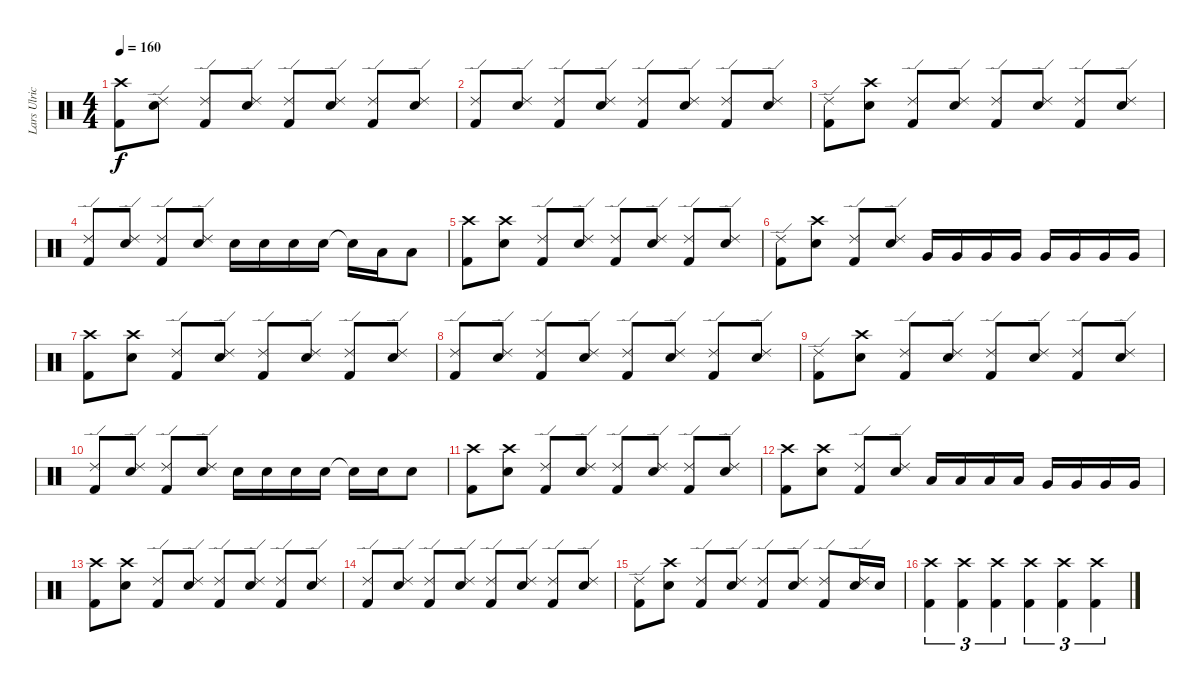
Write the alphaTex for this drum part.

\track ("Lars Ulrich" "Lars Ulric") {instrument percussion}
\staff {score}
\articulation defaults
\ts (4 4)
\tempo 160
\clef neutral
\ks c
("Crash high (hit)" "Kick (hit) 2").8{dy f balance 8} ("Ride (edge) 2" "Electric Snare (hit)").8 ("Ride (edge) 2" "Kick (hit) 2").8 ("Ride (edge) 2" "Electric Snare (hit)").8 ("Ride (edge) 2" "Kick (hit) 2").8 ("Ride (edge) 2" "Electric Snare (hit)").8 ("Ride (edge) 2" "Kick (hit) 2").8 ("Ride (edge) 2" "Electric Snare (hit)").8 |
("Ride (edge) 2" "Kick (hit) 2").8 ("Ride (edge) 2" "Electric Snare (hit)").8 ("Ride (edge) 2" "Kick (hit) 2").8 ("Ride (edge) 2" "Electric Snare (hit)").8 ("Ride (edge) 2" "Kick (hit) 2").8 ("Ride (edge) 2" "Electric Snare (hit)").8 ("Ride (edge) 2" "Kick (hit) 2").8 ("Ride (edge) 2" "Electric Snare (hit)").8 |
("Ride (edge) 2" "Kick (hit) 2").8 ("Crash high (hit)" "Electric Snare (hit)").8 ("Ride (edge) 2" "Kick (hit) 2").8 ("Ride (edge) 2" "Electric Snare (hit)").8 ("Ride (edge) 2" "Kick (hit) 2").8 ("Ride (edge) 2" "Electric Snare (hit)").8 ("Ride (edge) 2" "Kick (hit) 2").8 ("Ride (edge) 2" "Electric Snare (hit)").8 |
("Ride (edge) 2" "Kick (hit) 2").8 ("Ride (edge) 2" "Electric Snare (hit)").8 ("Ride (edge) 2" "Kick (hit) 2").8 ("Ride (edge) 2" "Electric Snare (hit)").8 "Electric Snare (hit)".16 "Electric Snare (hit)".16 "Electric Snare (hit)".16 "Electric Snare (hit)".16 "Snare (hit)"{t}.16 "Low Tom (hit)".16 "Low Tom (hit)".8 |
("Crash high (hit)" "Kick (hit) 2").8 ("Crash high (hit)" "Electric Snare (hit)").8 ("Ride (edge) 2" "Kick (hit) 2").8 ("Ride (edge) 2" "Electric Snare (hit)").8 ("Ride (edge) 2" "Kick (hit) 2").8 ("Ride (edge) 2" "Electric Snare (hit)").8 ("Ride (edge) 2" "Kick (hit) 2").8 ("Ride (edge) 2" "Electric Snare (hit)").8 |
("Ride (edge) 2" "Kick (hit) 2").8 ("Crash high (hit)" "Electric Snare (hit)").8 ("Ride (edge) 2" "Kick (hit) 2").8 ("Ride (edge) 2" "Electric Snare (hit)").8 "Very Low Tom (hit)".16 "Very Low Tom (hit)".16 "Very Low Tom (hit)".16 "Very Low Tom (hit)".16 "Very Low Tom (hit)".16 "Very Low Tom (hit)".16 "Very Low Tom (hit)".16 "Very Low Tom (hit)".16 |
("Crash high (hit)" "Kick (hit) 2").8 ("Crash high (hit)" "Electric Snare (hit)").8 ("Ride (edge) 2" "Kick (hit) 2").8 ("Ride (edge) 2" "Electric Snare (hit)").8 ("Ride (edge) 2" "Kick (hit) 2").8 ("Ride (edge) 2" "Electric Snare (hit)").8 ("Ride (edge) 2" "Kick (hit) 2").8 ("Ride (edge) 2" "Electric Snare (hit)").8 |
("Ride (edge) 2" "Kick (hit) 2").8 ("Ride (edge) 2" "Electric Snare (hit)").8 ("Ride (edge) 2" "Kick (hit) 2").8 ("Ride (edge) 2" "Electric Snare (hit)").8 ("Ride (edge) 2" "Kick (hit) 2").8 ("Ride (edge) 2" "Electric Snare (hit)").8 ("Ride (edge) 2" "Kick (hit) 2").8 ("Ride (edge) 2" "Electric Snare (hit)").8 |
("Ride (edge) 2" "Kick (hit) 2").8 ("Crash high (hit)" "Electric Snare (hit)").8 ("Ride (edge) 2" "Kick (hit) 2").8 ("Ride (edge) 2" "Electric Snare (hit)").8 ("Ride (edge) 2" "Kick (hit) 2").8 ("Ride (edge) 2" "Electric Snare (hit)").8 ("Ride (edge) 2" "Kick (hit) 2").8 ("Ride (edge) 2" "Electric Snare (hit)").8 |
("Ride (edge) 2" "Kick (hit) 2").8 ("Ride (edge) 2" "Electric Snare (hit)").8 ("Ride (edge) 2" "Kick (hit) 2").8 ("Ride (edge) 2" "Electric Snare (hit)").8 "Electric Snare (hit)".16 "Electric Snare (hit)".16 "Electric Snare (hit)".16 "Electric Snare (hit)".16 "Snare (hit)"{t}.16 "Electric Snare (hit)".16 "Electric Snare (hit)".8 |
("Crash high (hit)" "Kick (hit) 2").8 ("Crash high (hit)" "Electric Snare (hit)").8 ("Ride (edge) 2" "Kick (hit) 2").8 ("Ride (edge) 2" "Electric Snare (hit)").8 ("Ride (edge) 2" "Kick (hit) 2").8 ("Ride (edge) 2" "Electric Snare (hit)").8 ("Ride (edge) 2" "Kick (hit) 2").8 ("Ride (edge) 2" "Electric Snare (hit)").8 |
("Crash high (hit)" "Kick (hit) 2").8 ("Crash high (hit)" "Electric Snare (hit)").8 ("Ride (edge) 2" "Kick (hit) 2").8 ("Ride (edge) 2" "Electric Snare (hit)").8 "Low Tom (hit)".16 "Low Tom (hit)".16 "Low Tom (hit)".16 "Low Tom (hit)".16 "Very Low Tom (hit)".16 "Very Low Tom (hit)".16 "Very Low Tom (hit)".16 "Very Low Tom (hit)".16 |
("Crash high (hit)" "Kick (hit) 2").8 ("Crash high (hit)" "Electric Snare (hit)").8 ("Ride (edge) 2" "Kick (hit) 2").8 ("Ride (edge) 2" "Electric Snare (hit)").8 ("Ride (edge) 2" "Kick (hit) 2").8 ("Ride (edge) 2" "Electric Snare (hit)").8 ("Ride (edge) 2" "Kick (hit) 2").8 ("Ride (edge) 2" "Electric Snare (hit)").8 |
("Ride (edge) 2" "Kick (hit) 2").8 ("Ride (edge) 2" "Electric Snare (hit)").8 ("Ride (edge) 2" "Kick (hit) 2").8 ("Ride (edge) 2" "Electric Snare (hit)").8 ("Ride (edge) 2" "Kick (hit) 2").8 ("Ride (edge) 2" "Electric Snare (hit)").8 ("Ride (edge) 2" "Kick (hit) 2").8 ("Ride (edge) 2" "Electric Snare (hit)").8 |
("Ride (edge) 2" "Kick (hit) 2").8 ("Crash high (hit)" "Electric Snare (hit)").8 ("Ride (edge) 2" "Kick (hit) 2").8 ("Ride (edge) 2" "Electric Snare (hit)").8 ("Ride (edge) 2" "Kick (hit) 2").8 ("Ride (edge) 2" "Electric Snare (hit)").8 ("Ride (edge) 2" "Kick (hit) 2").8 ("Ride (edge) 2" "Electric Snare (hit)").16 "Electric Snare (hit)".16 |
("Crash high (hit)" "Kick (hit) 2").4{tu (3 2)} ("Crash high (hit)" "Kick (hit) 2").4{tu (3 2)} ("Crash high (hit)" "Kick (hit) 2").4{tu (3 2)} ("Crash high (hit)" "Kick (hit) 2").4{tu (3 2)} ("Crash high (hit)" "Kick (hit) 2").4{tu (3 2)} ("Crash high (hit)" "Kick (hit) 2").4{tu (3 2)}
